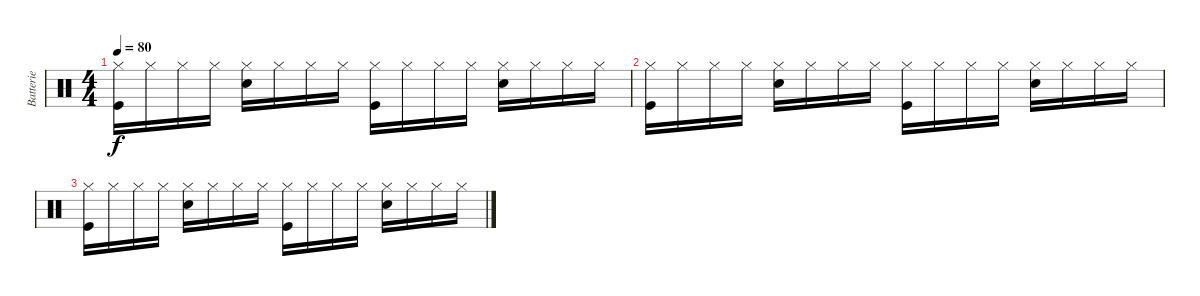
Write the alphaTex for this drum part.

\track ("Batterie" "Batterie") {instrument percussion}
\staff {score}
\articulation defaults
\ts (4 4)
\tempo 80
\clef neutral
\ks c
("Hi-Hat (closed)" "Kick (hit)").16{dy f} "Hi-Hat (closed)".16 "Hi-Hat (closed)".16 "Hi-Hat (closed)".16 ("Hi-Hat (closed)" "Snare (hit) 2").16 "Hi-Hat (closed)".16 "Hi-Hat (closed)".16 "Hi-Hat (closed)".16 ("Hi-Hat (closed)" "Kick (hit)").16 "Hi-Hat (closed)".16 "Hi-Hat (closed)".16 "Hi-Hat (closed)".16 ("Hi-Hat (closed)" "Snare (hit) 2").16 "Hi-Hat (closed)".16 "Hi-Hat (closed)".16 "Hi-Hat (closed)".16 |
("Hi-Hat (closed)" "Kick (hit)").16 "Hi-Hat (closed)".16 "Hi-Hat (closed)".16 "Hi-Hat (closed)".16 ("Hi-Hat (closed)" "Snare (hit) 2").16 "Hi-Hat (closed)".16 "Hi-Hat (closed)".16 "Hi-Hat (closed)".16 ("Hi-Hat (closed)" "Kick (hit)").16 "Hi-Hat (closed)".16 "Hi-Hat (closed)".16 "Hi-Hat (closed)".16 ("Hi-Hat (closed)" "Snare (hit) 2").16 "Hi-Hat (closed)".16 "Hi-Hat (closed)".16 "Hi-Hat (closed)".16 |
("Hi-Hat (closed)" "Kick (hit)").16 "Hi-Hat (closed)".16 "Hi-Hat (closed)".16 "Hi-Hat (closed)".16 ("Hi-Hat (closed)" "Snare (hit) 2").16 "Hi-Hat (closed)".16 "Hi-Hat (closed)".16 "Hi-Hat (closed)".16 ("Hi-Hat (closed)" "Kick (hit)").16 "Hi-Hat (closed)".16 "Hi-Hat (closed)".16 "Hi-Hat (closed)".16 ("Hi-Hat (closed)" "Snare (hit) 2").16 "Hi-Hat (closed)".16 "Hi-Hat (closed)".16 "Hi-Hat (closed)".16
